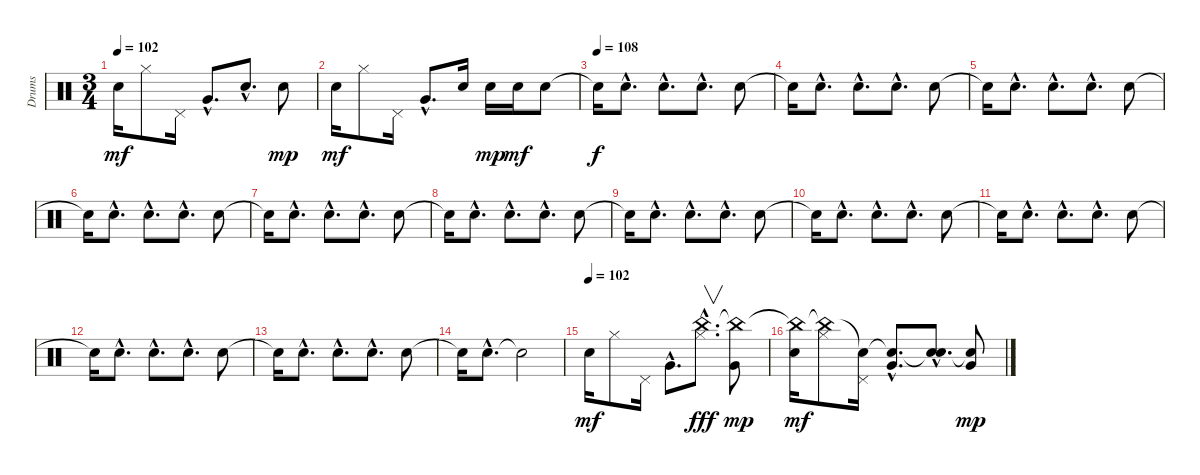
\track ("Drums" "Drums") {instrument percussion}
\staff {score}
\articulation defaults
\ts (3 4)
\tempo 102
\clef neutral
\ks c "Electric Snare (hit)".16{dy mf} "Hi-Hat (closed)".8 "Pedal Hi-Hat (hit)".16 "Very Low Tom (hit)"{hac}.8{d} "Electric Snare (hit)"{hac}.8{d} "Electric Snare (hit)".8{dy mp}
|
"Electric Snare (hit)".16{dy mf} "Hi-Hat (closed)".8 "Pedal Hi-Hat (hit)".16 "Very Low Tom (hit)"{hac}.8{d} "Electric Snare (hit)".16 "Electric Snare (hit)".16{dy mp} "Electric Snare (hit)".16{dy mf} "Electric Snare (hit)".8 |
\tempo (108)
"Snare (hit)"{t}.16{dy f volume 12} "Electric Snare (hit)"{hac}.8{d} "Electric Snare (hit)"{hac}.8{d} "Electric Snare (hit)"{hac}.8{d} "Electric Snare (hit)".8 |
"Snare (hit)"{t}.16{volume 12} "Electric Snare (hit)"{hac}.8{d} "Electric Snare (hit)"{hac}.8{d} "Electric Snare (hit)"{hac}.8{d} "Electric Snare (hit)".8 |
"Snare (hit)"{t}.16{volume 12} "Electric Snare (hit)"{hac}.8{d} "Electric Snare (hit)"{hac}.8{d} "Electric Snare (hit)"{hac}.8{d} "Electric Snare (hit)".8 |
"Snare (hit)"{t}.16{volume 12} "Electric Snare (hit)"{hac}.8{d} "Electric Snare (hit)"{hac}.8{d} "Electric Snare (hit)"{hac}.8{d} "Electric Snare (hit)".8 |
"Snare (hit)"{t}.16{volume 12} "Electric Snare (hit)"{hac}.8{d} "Electric Snare (hit)"{hac}.8{d} "Electric Snare (hit)"{hac}.8{d} "Electric Snare (hit)".8 |
"Snare (hit)"{t}.16{volume 12} "Electric Snare (hit)"{hac}.8{d} "Electric Snare (hit)"{hac}.8{d} "Electric Snare (hit)"{hac}.8{d} "Electric Snare (hit)".8 |
"Snare (hit)"{t}.16{volume 12} "Electric Snare (hit)"{hac}.8{d} "Electric Snare (hit)"{hac}.8{d} "Electric Snare (hit)"{hac}.8{d} "Electric Snare (hit)".8 |
"Snare (hit)"{t}.16{volume 12} "Electric Snare (hit)"{hac}.8{d} "Electric Snare (hit)"{hac}.8{d} "Electric Snare (hit)"{hac}.8{d} "Electric Snare (hit)".8 |
"Snare (hit)"{t}.16{volume 12} "Electric Snare (hit)"{hac}.8{d} "Electric Snare (hit)"{hac}.8{d} "Electric Snare (hit)"{hac}.8{d} "Electric Snare (hit)".8 |
"Snare (hit)"{t}.16{volume 12} "Electric Snare (hit)"{hac}.8{d} "Electric Snare (hit)"{hac}.8{d} "Electric Snare (hit)"{hac}.8{d} "Electric Snare (hit)".8 |
"Snare (hit)"{t}.16{volume 12} "Electric Snare (hit)"{hac}.8{d} "Electric Snare (hit)"{hac}.8{d} "Electric Snare (hit)"{hac}.8{d} "Electric Snare (hit)".8 |
"Snare (hit)"{t}.16{volume 14} "Electric Snare (hit)"{hac}.8{d} "Snare (hit)"{t}.2 |
\tempo (102)
"Electric Snare (hit)".16{dy mf volume 12} "Hi-Hat (closed)".8 "Pedal Hi-Hat (hit)".16 "Very Low Tom (hit)"{hac}.8{d} ("China (hit)"{hac} "Hi-Hat (closed)"{hac}).8{v d dy fff} ("China (hit)"{t} "Very Low Tom (hit)").8{dy mp} |
("China (hit)"{t} "Electric Snare (hit)").16{dy mf} ("China (hit)"{t} "Hi-Hat (closed)").8 ("Snare (hit)"{t} "Pedal Hi-Hat (hit)").16 ("Snare (hit)"{hac t} "Very Low Tom (hit)"{hac}).8{d} ("Snare (hit)"{hac t} "Electric Snare (hit)"{hac}).8{d} ("Snare (hit)"{t} "Very Low Tom (hit)").8{dy mp}
